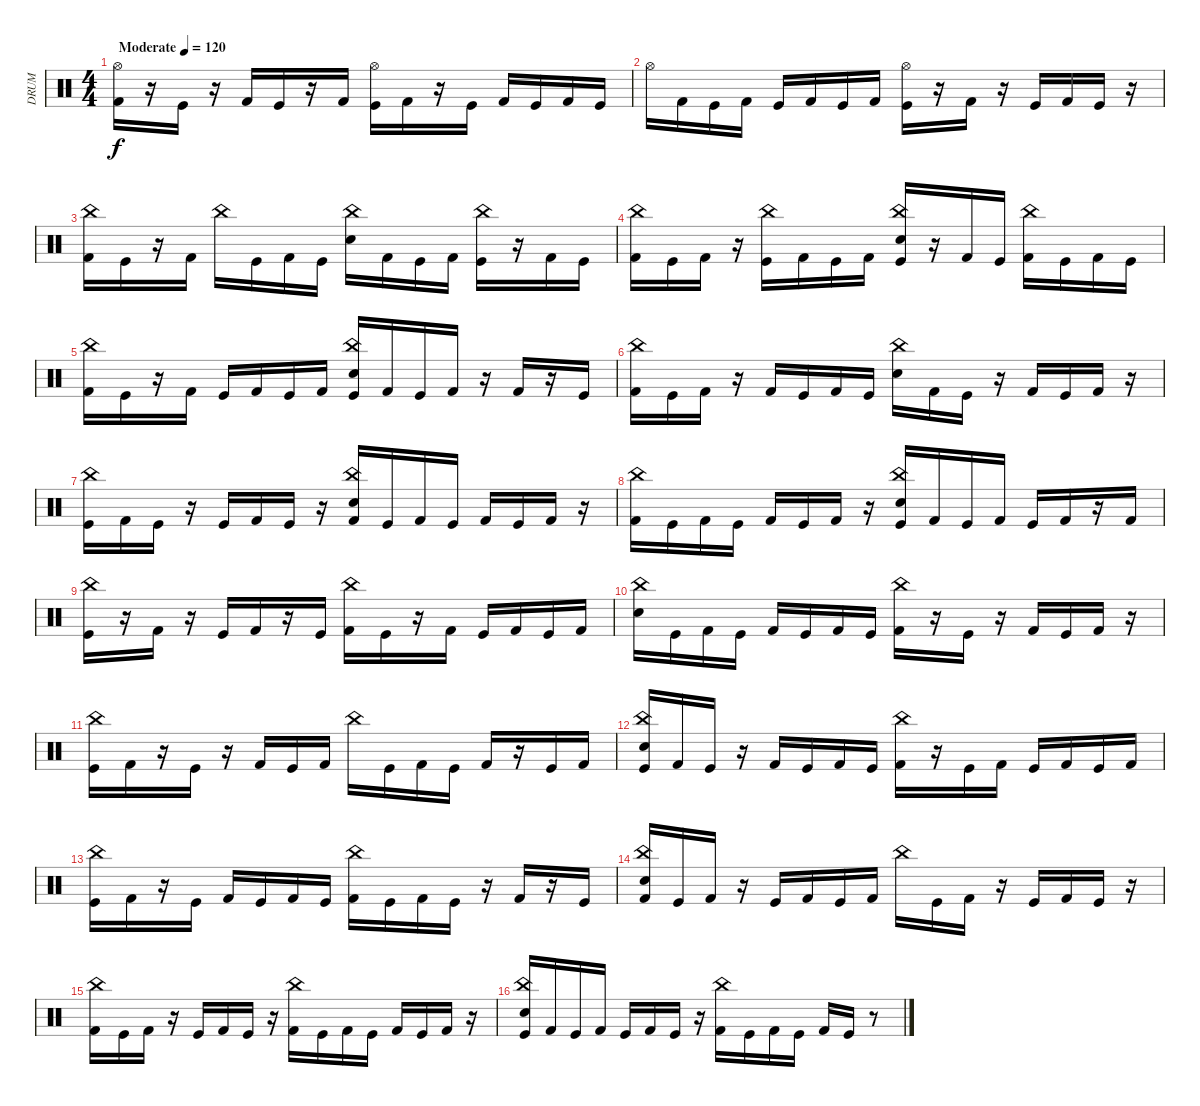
\track ("DRUM" "DRUM") {instrument percussion}
\staff {score}
\articulation defaults
\ts (4 4)
\tempo (120 "Moderate")
\tempo 130
\tempo (120 "Moderate")
\clef neutral
\ks c
("Hi-Hat (open)" "Kick (hit) 2").16{dy f volume 4} r.16{volume 8} "Kick (hit)".16 r.16 "Kick (hit) 2".16 "Kick (hit)".16 r.16 "Kick (hit) 2".16 ("Hi-Hat (open)" "Kick (hit)").16 "Kick (hit) 2".16 r.16 "Kick (hit)".16 "Kick (hit) 2".16 "Kick (hit)".16 "Kick (hit) 2".16 "Kick (hit)".16 |
"Hi-Hat (open)".16 "Kick (hit) 2".16 "Kick (hit)".16 "Kick (hit) 2".16 "Kick (hit)".16 "Kick (hit) 2".16 "Kick (hit)".16 "Kick (hit) 2".16 ("Hi-Hat (open)" "Kick (hit)").16 r.16 "Kick (hit) 2".16 r.16 "Kick (hit)".16 "Kick (hit) 2".16 "Kick (hit)".16 r.16 |
("China (hit)" "Kick (hit) 2").16 "Kick (hit)".16 r.16 "Kick (hit) 2".16 "China (hit)".16 "Kick (hit)".16 "Kick (hit) 2".16 "Kick (hit)".16 ("China (hit)" "Electric Snare (hit)").16 "Kick (hit) 2".16 "Kick (hit)".16 "Kick (hit) 2".16 ("China (hit)" "Kick (hit)").16 r.16 "Kick (hit) 2".16 "Kick (hit)".16 |
("China (hit)" "Kick (hit) 2").16 "Kick (hit)".16 "Kick (hit) 2".16 r.16 ("China (hit)" "Kick (hit)").16 "Kick (hit) 2".16 "Kick (hit)".16 "Kick (hit) 2".16 ("China (hit)" "Electric Snare (hit)" "Kick (hit)").16 r.16 "Kick (hit) 2".16 "Kick (hit)".16 ("China (hit)" "Kick (hit) 2").16 "Kick (hit)".16 "Kick (hit) 2".16 "Kick (hit)".16 |
("China (hit)" "Kick (hit) 2").16 "Kick (hit)".16 r.16 "Kick (hit) 2".16 "Kick (hit)".16 "Kick (hit) 2".16 "Kick (hit)".16 "Kick (hit) 2".16 ("China (hit)" "Electric Snare (hit)" "Kick (hit)").16 "Kick (hit) 2".16 "Kick (hit)".16 "Kick (hit) 2".16 r.16 "Kick (hit) 2".16 r.16 "Kick (hit)".16 |
("China (hit)" "Kick (hit) 2").16 "Kick (hit)".16 "Kick (hit) 2".16 r.16 "Kick (hit) 2".16 "Kick (hit)".16 "Kick (hit) 2".16 "Kick (hit)".16 ("China (hit)" "Electric Snare (hit)").16 "Kick (hit) 2".16 "Kick (hit)".16 r.16 "Kick (hit) 2".16 "Kick (hit)".16 "Kick (hit) 2".16 r.16 |
("China (hit)" "Kick (hit)").16 "Kick (hit) 2".16 "Kick (hit)".16 r.16 "Kick (hit)".16 "Kick (hit) 2".16 "Kick (hit)".16 r.16 ("China (hit)" "Electric Snare (hit)" "Kick (hit) 2").16 "Kick (hit)".16 "Kick (hit) 2".16 "Kick (hit)".16 "Kick (hit) 2".16 "Kick (hit)".16 "Kick (hit) 2".16 r.16 |
("China (hit)" "Kick (hit) 2").16 "Kick (hit)".16 "Kick (hit) 2".16 "Kick (hit)".16 "Kick (hit) 2".16 "Kick (hit)".16 "Kick (hit) 2".16 r.16 ("China (hit)" "Electric Snare (hit)" "Kick (hit)").16 "Kick (hit) 2".16 "Kick (hit)".16 "Kick (hit) 2".16 "Kick (hit)".16 "Kick (hit) 2".16 r.16 "Kick (hit) 2".16 |
("China (hit)" "Kick (hit)").16 r.16 "Kick (hit) 2".16 r.16 "Kick (hit)".16 "Kick (hit) 2".16 r.16 "Kick (hit)".16 ("China (hit)" "Kick (hit) 2").16 "Kick (hit)".16 r.16 "Kick (hit) 2".16 "Kick (hit)".16 "Kick (hit) 2".16 "Kick (hit)".16 "Kick (hit) 2".16 |
("China (hit)" "Electric Snare (hit)").16 "Kick (hit)".16 "Kick (hit) 2".16 "Kick (hit)".16 "Kick (hit) 2".16 "Kick (hit)".16 "Kick (hit) 2".16 "Kick (hit)".16 ("China (hit)" "Kick (hit) 2").16 r.16 "Kick (hit)".16 r.16 "Kick (hit) 2".16 "Kick (hit)".16 "Kick (hit) 2".16 r.16 |
("China (hit)" "Kick (hit)").16 "Kick (hit) 2".16 r.16 "Kick (hit)".16 r.16 "Kick (hit) 2".16 "Kick (hit)".16 "Kick (hit) 2".16 "China (hit)".16 "Kick (hit)".16 "Kick (hit) 2".16 "Kick (hit)".16 "Kick (hit) 2".16 r.16 "Kick (hit)".16 "Kick (hit) 2".16 |
("China (hit)" "Electric Snare (hit)" "Kick (hit)").16 "Kick (hit) 2".16 "Kick (hit)".16 r.16 "Kick (hit) 2".16 "Kick (hit)".16 "Kick (hit) 2".16 "Kick (hit)".16 ("China (hit)" "Kick (hit) 2").16 r.16 "Kick (hit)".16 "Kick (hit) 2".16 "Kick (hit)".16 "Kick (hit) 2".16 "Kick (hit)".16 "Kick (hit) 2".16 |
("China (hit)" "Kick (hit)").16 "Kick (hit) 2".16 r.16 "Kick (hit)".16 "Kick (hit) 2".16 "Kick (hit)".16 "Kick (hit) 2".16 "Kick (hit)".16 ("China (hit)" "Kick (hit) 2").16 "Kick (hit)".16 "Kick (hit) 2".16 "Kick (hit)".16 r.16 "Kick (hit) 2".16 r.16 "Kick (hit)".16 |
("China (hit)" "Electric Snare (hit)" "Kick (hit) 2").16 "Kick (hit)".16 "Kick (hit) 2".16 r.16 "Kick (hit)".16 "Kick (hit) 2".16 "Kick (hit)".16 "Kick (hit) 2".16 "China (hit)".16 "Kick (hit)".16 "Kick (hit) 2".16 r.16 "Kick (hit)".16 "Kick (hit) 2".16 "Kick (hit)".16 r.16 |
("China (hit)" "Kick (hit) 2").16 "Kick (hit)".16 "Kick (hit) 2".16 r.16 "Kick (hit)".16 "Kick (hit) 2".16 "Kick (hit)".16 r.16 ("China (hit)" "Kick (hit) 2").16 "Kick (hit)".16 "Kick (hit) 2".16 "Kick (hit)".16 "Kick (hit) 2".16 "Kick (hit)".16 "Kick (hit) 2".16 r.16 |
("China (hit)" "Electric Snare (hit)" "Kick (hit)").16 "Kick (hit) 2".16 "Kick (hit)".16 "Kick (hit) 2".16 "Kick (hit)".16 "Kick (hit) 2".16 "Kick (hit)".16 r.16 ("China (hit)" "Kick (hit) 2").16 "Kick (hit)".16 "Kick (hit) 2".16 "Kick (hit)".16 "Kick (hit) 2".16 "Kick (hit)".16 r.8
